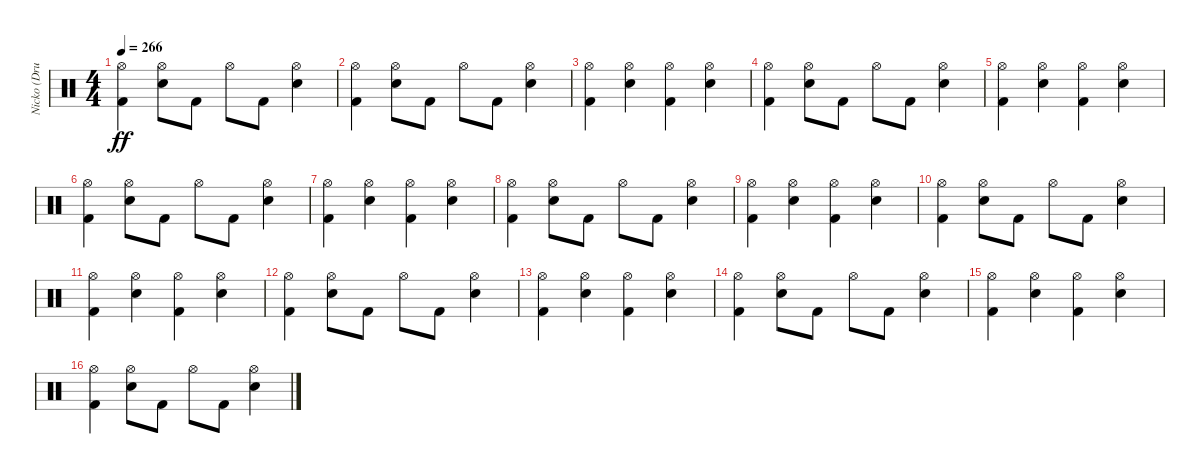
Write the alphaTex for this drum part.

\track ("Nicko (Drums)" "Nicko (Dru") {instrument percussion}
\staff {score}
\articulation defaults
\ts (4 4)
\tempo 266
\clef neutral
\ks c
("Kick (hit) 2" "Hi-Hat (open)").4{dy ff} ("Snare (hit) 2" "Hi-Hat (open)").8 "Kick (hit) 2".8 "Hi-Hat (open)".8 "Kick (hit) 2".8 ("Snare (hit) 2" "Hi-Hat (open)").4 |
("Kick (hit) 2" "Hi-Hat (open)").4 ("Snare (hit) 2" "Hi-Hat (open)").8 "Kick (hit) 2".8 "Hi-Hat (open)".8 "Kick (hit) 2".8 ("Snare (hit) 2" "Hi-Hat (open)").4 |
("Kick (hit) 2" "Hi-Hat (open)").4 ("Snare (hit) 2" "Hi-Hat (open)").4 ("Kick (hit) 2" "Hi-Hat (open)").4 ("Snare (hit) 2" "Hi-Hat (open)").4 |
("Kick (hit) 2" "Hi-Hat (open)").4 ("Snare (hit) 2" "Hi-Hat (open)").8 "Kick (hit) 2".8 "Hi-Hat (open)".8 "Kick (hit) 2".8 ("Snare (hit) 2" "Hi-Hat (open)").4 |
("Kick (hit) 2" "Hi-Hat (open)").4 ("Snare (hit) 2" "Hi-Hat (open)").4 ("Kick (hit) 2" "Hi-Hat (open)").4 ("Snare (hit) 2" "Hi-Hat (open)").4 |
("Kick (hit) 2" "Hi-Hat (open)").4 ("Snare (hit) 2" "Hi-Hat (open)").8 "Kick (hit) 2".8 "Hi-Hat (open)".8 "Kick (hit) 2".8 ("Snare (hit) 2" "Hi-Hat (open)").4 |
("Kick (hit) 2" "Hi-Hat (open)").4 ("Snare (hit) 2" "Hi-Hat (open)").4 ("Kick (hit) 2" "Hi-Hat (open)").4 ("Snare (hit) 2" "Hi-Hat (open)").4 |
("Kick (hit) 2" "Hi-Hat (open)").4 ("Snare (hit) 2" "Hi-Hat (open)").8 "Kick (hit) 2".8 "Hi-Hat (open)".8 "Kick (hit) 2".8 ("Snare (hit) 2" "Hi-Hat (open)").4 |
("Kick (hit) 2" "Hi-Hat (open)").4 ("Snare (hit) 2" "Hi-Hat (open)").4 ("Kick (hit) 2" "Hi-Hat (open)").4 ("Snare (hit) 2" "Hi-Hat (open)").4 |
("Kick (hit) 2" "Hi-Hat (open)").4 ("Snare (hit) 2" "Hi-Hat (open)").8 "Kick (hit) 2".8 "Hi-Hat (open)".8 "Kick (hit) 2".8 ("Snare (hit) 2" "Hi-Hat (open)").4 |
("Kick (hit) 2" "Hi-Hat (open)").4 ("Snare (hit) 2" "Hi-Hat (open)").4 ("Kick (hit) 2" "Hi-Hat (open)").4 ("Snare (hit) 2" "Hi-Hat (open)").4 |
("Kick (hit) 2" "Hi-Hat (open)").4 ("Snare (hit) 2" "Hi-Hat (open)").8 "Kick (hit) 2".8 "Hi-Hat (open)".8 "Kick (hit) 2".8 ("Snare (hit) 2" "Hi-Hat (open)").4 |
("Kick (hit) 2" "Hi-Hat (open)").4 ("Snare (hit) 2" "Hi-Hat (open)").4 ("Kick (hit) 2" "Hi-Hat (open)").4 ("Snare (hit) 2" "Hi-Hat (open)").4 |
("Kick (hit) 2" "Hi-Hat (open)").4 ("Snare (hit) 2" "Hi-Hat (open)").8 "Kick (hit) 2".8 "Hi-Hat (open)".8 "Kick (hit) 2".8 ("Snare (hit) 2" "Hi-Hat (open)").4 |
("Kick (hit) 2" "Hi-Hat (open)").4 ("Snare (hit) 2" "Hi-Hat (open)").4 ("Kick (hit) 2" "Hi-Hat (open)").4 ("Snare (hit) 2" "Hi-Hat (open)").4 |
("Kick (hit) 2" "Hi-Hat (open)").4 ("Snare (hit) 2" "Hi-Hat (open)").8 "Kick (hit) 2".8 "Hi-Hat (open)".8 "Kick (hit) 2".8 ("Snare (hit) 2" "Hi-Hat (open)").4
